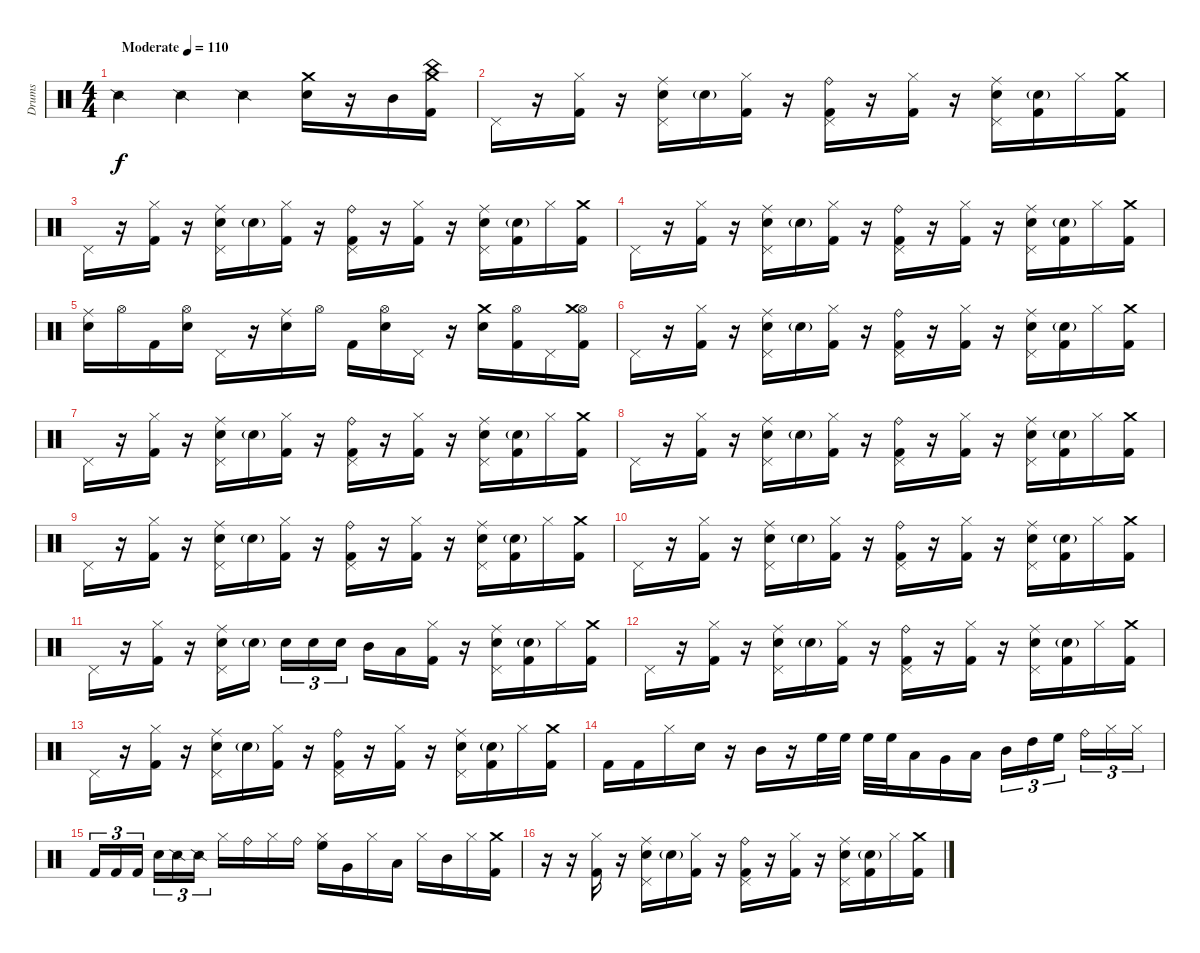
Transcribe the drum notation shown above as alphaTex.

\track ("Drums" "Drums") {instrument percussion}
\staff {score}
\articulation defaults
\ts (4 4)
\tempo (110 "Moderate")
\clef neutral
\ks c "Snare (side stick) 2".4{dy f} "Snare (side stick) 2".4 "Snare (side stick) 2".4
("Crash medium (hit)" "Snare (hit) 2").16 r.16 "Mid Tom (hit)".16 ("Crash medium (hit)" "China (hit)" "Kick (hit) 2").16 |
"Pedal Hi-Hat (hit)".16 r.16 ("Hi-Hat (closed)" "Kick (hit) 2").16 r.16 ("Ride (middle)" "Pedal Hi-Hat (hit)" "Snare (hit) 2").16 "Snare (hit) 2"{g}.16 ("Hi-Hat (closed)" "Kick (hit) 2").16 r.16 ("Ride (bell)" "Pedal Hi-Hat (hit)" "Kick (hit) 2").16 r.16 ("Hi-Hat (closed)" "Kick (hit) 2").16 r.16 ("Ride (middle)" "Pedal Hi-Hat (hit)" "Snare (hit) 2").16 ("Snare (hit) 2"{g} "Kick (hit) 2").16 "Hi-Hat (closed)".16 ("Crash medium (hit)" "Kick (hit) 2").16 |
"Pedal Hi-Hat (hit)".16 r.16 ("Hi-Hat (closed)" "Kick (hit) 2").16 r.16 ("Ride (middle)" "Pedal Hi-Hat (hit)" "Snare (hit) 2").16 "Snare (hit) 2"{g}.16 ("Hi-Hat (closed)" "Kick (hit) 2").16 r.16 ("Ride (bell)" "Pedal Hi-Hat (hit)" "Kick (hit) 2").16 r.16 ("Hi-Hat (closed)" "Kick (hit) 2").16 r.16 ("Ride (middle)" "Pedal Hi-Hat (hit)" "Snare (hit) 2").16 ("Snare (hit) 2"{g} "Kick (hit) 2").16 "Hi-Hat (closed)".16 ("Crash medium (hit)" "Kick (hit) 2").16 |
"Pedal Hi-Hat (hit)".16 r.16 ("Hi-Hat (closed)" "Kick (hit) 2").16 r.16 ("Ride (middle)" "Pedal Hi-Hat (hit)" "Snare (hit) 2").16 "Snare (hit) 2"{g}.16 ("Hi-Hat (closed)" "Kick (hit) 2").16 r.16 ("Ride (bell)" "Pedal Hi-Hat (hit)" "Kick (hit) 2").16 r.16 ("Hi-Hat (closed)" "Kick (hit) 2").16 r.16 ("Ride (middle)" "Pedal Hi-Hat (hit)" "Snare (hit) 2").16 ("Snare (hit) 2"{g} "Kick (hit) 2").16 "Hi-Hat (closed)".16 ("Crash medium (hit)" "Kick (hit) 2").16 |
("Ride (middle)" "Snare (hit) 2").16 "Hi-Hat (open)".16 "Kick (hit) 2".16 ("Hi-Hat (open)" "Snare (hit) 2").16 "Pedal Hi-Hat (hit)".16 r.16 ("Ride (middle)" "Snare (hit) 2").16 "Hi-Hat (open)".16 "Kick (hit) 2".16 ("Hi-Hat (open)" "Snare (hit) 2").16 "Pedal Hi-Hat (hit)".16 r.16 ("Crash medium (hit)" "Snare (hit) 2").16 ("Hi-Hat (open)" "Kick (hit) 2").16 "Pedal Hi-Hat (hit)".16 ("Hi-Hat (open)" "Crash medium (hit)" "Kick (hit) 2").16 |
"Pedal Hi-Hat (hit)".16 r.16 ("Hi-Hat (closed)" "Kick (hit) 2").16 r.16 ("Ride (middle)" "Pedal Hi-Hat (hit)" "Snare (hit) 2").16 "Snare (hit) 2"{g}.16 ("Hi-Hat (closed)" "Kick (hit) 2").16 r.16 ("Ride (bell)" "Pedal Hi-Hat (hit)" "Kick (hit) 2").16 r.16 ("Hi-Hat (closed)" "Kick (hit) 2").16 r.16 ("Ride (middle)" "Pedal Hi-Hat (hit)" "Snare (hit) 2").16 ("Snare (hit) 2"{g} "Kick (hit) 2").16 "Hi-Hat (closed)".16 ("Crash medium (hit)" "Kick (hit) 2").16 |
"Pedal Hi-Hat (hit)".16 r.16 ("Hi-Hat (closed)" "Kick (hit) 2").16 r.16 ("Ride (middle)" "Pedal Hi-Hat (hit)" "Snare (hit) 2").16 "Snare (hit) 2"{g}.16 ("Hi-Hat (closed)" "Kick (hit) 2").16 r.16 ("Ride (bell)" "Pedal Hi-Hat (hit)" "Kick (hit) 2").16 r.16 ("Hi-Hat (closed)" "Kick (hit) 2").16 r.16 ("Ride (middle)" "Pedal Hi-Hat (hit)" "Snare (hit) 2").16 ("Snare (hit) 2"{g} "Kick (hit) 2").16 "Hi-Hat (closed)".16 ("Crash medium (hit)" "Kick (hit) 2").16 |
"Pedal Hi-Hat (hit)".16 r.16 ("Hi-Hat (closed)" "Kick (hit) 2").16 r.16 ("Ride (middle)" "Pedal Hi-Hat (hit)" "Snare (hit) 2").16 "Snare (hit) 2"{g}.16 ("Hi-Hat (closed)" "Kick (hit) 2").16 r.16 ("Ride (bell)" "Pedal Hi-Hat (hit)" "Kick (hit) 2").16 r.16 ("Hi-Hat (closed)" "Kick (hit) 2").16 r.16 ("Ride (middle)" "Pedal Hi-Hat (hit)" "Snare (hit) 2").16 ("Snare (hit) 2"{g} "Kick (hit) 2").16 "Hi-Hat (closed)".16 ("Crash medium (hit)" "Kick (hit) 2").16 |
"Pedal Hi-Hat (hit)".16 r.16 ("Hi-Hat (closed)" "Kick (hit) 2").16 r.16 ("Ride (middle)" "Pedal Hi-Hat (hit)" "Snare (hit) 2").16 "Snare (hit) 2"{g}.16 ("Hi-Hat (closed)" "Kick (hit) 2").16 r.16 ("Ride (bell)" "Pedal Hi-Hat (hit)" "Kick (hit) 2").16 r.16 ("Hi-Hat (closed)" "Kick (hit) 2").16 r.16 ("Ride (middle)" "Pedal Hi-Hat (hit)" "Snare (hit) 2").16 ("Snare (hit) 2"{g} "Kick (hit) 2").16 "Hi-Hat (closed)".16 ("Crash medium (hit)" "Kick (hit) 2").16 |
"Pedal Hi-Hat (hit)".16 r.16 ("Hi-Hat (closed)" "Kick (hit) 2").16 r.16 ("Ride (middle)" "Pedal Hi-Hat (hit)" "Snare (hit) 2").16 "Snare (hit) 2"{g}.16 ("Hi-Hat (closed)" "Kick (hit) 2").16 r.16 ("Ride (bell)" "Pedal Hi-Hat (hit)" "Kick (hit) 2").16 r.16 ("Hi-Hat (closed)" "Kick (hit) 2").16 r.16 ("Ride (middle)" "Pedal Hi-Hat (hit)" "Snare (hit) 2").16 ("Snare (hit) 2"{g} "Kick (hit) 2").16 "Hi-Hat (closed)".16 ("Crash medium (hit)" "Kick (hit) 2").16 |
"Pedal Hi-Hat (hit)".16 r.16 ("Hi-Hat (closed)" "Kick (hit) 2").16 r.16 ("Ride (middle)" "Pedal Hi-Hat (hit)" "Snare (hit) 2").16 "Snare (hit) 2"{g}.16{beam splitsecondary} "Snare (hit) 2".16{tu (3 2)} "Snare (hit) 2".16{tu (3 2)} "Snare (hit) 2".16{tu (3 2)} "Mid Tom (hit)".16 "Low Tom (hit)".16 ("Hi-Hat (closed)" "Kick (hit) 2").16 r.16 ("Ride (middle)" "Pedal Hi-Hat (hit)" "Snare (hit) 2").16 ("Snare (hit) 2"{g} "Kick (hit) 2").16 "Hi-Hat (closed)".16 ("Crash medium (hit)" "Kick (hit) 2").16 |
"Pedal Hi-Hat (hit)".16 r.16 ("Hi-Hat (closed)" "Kick (hit) 2").16 r.16 ("Ride (middle)" "Pedal Hi-Hat (hit)" "Snare (hit) 2").16 "Snare (hit) 2"{g}.16 ("Hi-Hat (closed)" "Kick (hit) 2").16 r.16 ("Ride (bell)" "Pedal Hi-Hat (hit)" "Kick (hit) 2").16 r.16 ("Hi-Hat (closed)" "Kick (hit) 2").16 r.16 ("Ride (middle)" "Pedal Hi-Hat (hit)" "Snare (hit) 2").16 ("Snare (hit) 2"{g} "Kick (hit) 2").16 "Hi-Hat (closed)".16 ("Crash medium (hit)" "Kick (hit) 2").16 |
"Pedal Hi-Hat (hit)".16 r.16 ("Hi-Hat (closed)" "Kick (hit) 2").16 r.16 ("Ride (middle)" "Pedal Hi-Hat (hit)" "Snare (hit) 2").16 "Snare (hit) 2"{g}.16 ("Hi-Hat (closed)" "Kick (hit) 2").16 r.16 ("Ride (bell)" "Pedal Hi-Hat (hit)" "Kick (hit) 2").16 r.16 ("Hi-Hat (closed)" "Kick (hit) 2").16 r.16 ("Ride (middle)" "Pedal Hi-Hat (hit)" "Snare (hit) 2").16 ("Snare (hit) 2"{g} "Kick (hit) 2").16 "Hi-Hat (closed)".16 ("Crash medium (hit)" "Kick (hit) 2").16 |
"Kick (hit) 2".16 "Kick (hit) 2".16 "Hi-Hat (closed)".16 "Snare (hit) 2".16 r.16 "Mid Tom (hit)".16 r.16 "High Floor Tom (hit)".32 "High Floor Tom (hit)".32 "High Floor Tom (hit)".32 "High Floor Tom (hit)".32 "Low Floor Tom (hit)".16 "Very Low Tom (hit)".16 "Low Tom (hit)".16 "Mid Tom (hit)".16{tu (3 2)} "High Tom (hit)".16{tu (3 2)} "High Floor Tom (hit)".16{tu (3 2) beam splitsecondary} "Ride (bell)".16{tu (3 2)} "Hi-Hat (closed)".16{tu (3 2)} "Hi-Hat (closed)".16{tu (3 2)} |
"Kick (hit) 2".16{tu (3 2)} "Kick (hit) 2".16{tu (3 2)} "Kick (hit) 2".16{tu (3 2) beam splitsecondary} "Snare (hit) 2".16{tu (3 2)} "Snare (side stick) 2".16{tu (3 2)} "Snare (side stick) 2".16{tu (3 2)} "Hi-Hat (closed)".16 "Ride (bell)".16 "Hi-Hat (closed)".16 "Ride (bell)".16 ("Hi-Hat (closed)" "High Floor Tom (hit)").16 "Very Low Tom (hit)".16 "Hi-Hat (closed)".16 "Low Tom (hit)".16 "Hi-Hat (closed)".16 "Mid Tom (hit)".16 "Hi-Hat (closed)".16 ("Crash medium (hit)" "Kick (hit) 2").16 |
r.16 r.16 ("Hi-Hat (closed)" "Kick (hit) 2").16 r.16 ("Ride (middle)" "Pedal Hi-Hat (hit)" "Snare (hit) 2").16 "Snare (hit) 2"{g}.16 ("Hi-Hat (closed)" "Kick (hit) 2").16 r.16 ("Ride (bell)" "Pedal Hi-Hat (hit)" "Kick (hit) 2").16 r.16 ("Hi-Hat (closed)" "Kick (hit) 2").16 r.16 ("Ride (middle)" "Pedal Hi-Hat (hit)" "Snare (hit) 2").16 ("Snare (hit) 2"{g} "Kick (hit) 2").16 "Hi-Hat (closed)".16 ("Crash medium (hit)" "Kick (hit) 2").16
